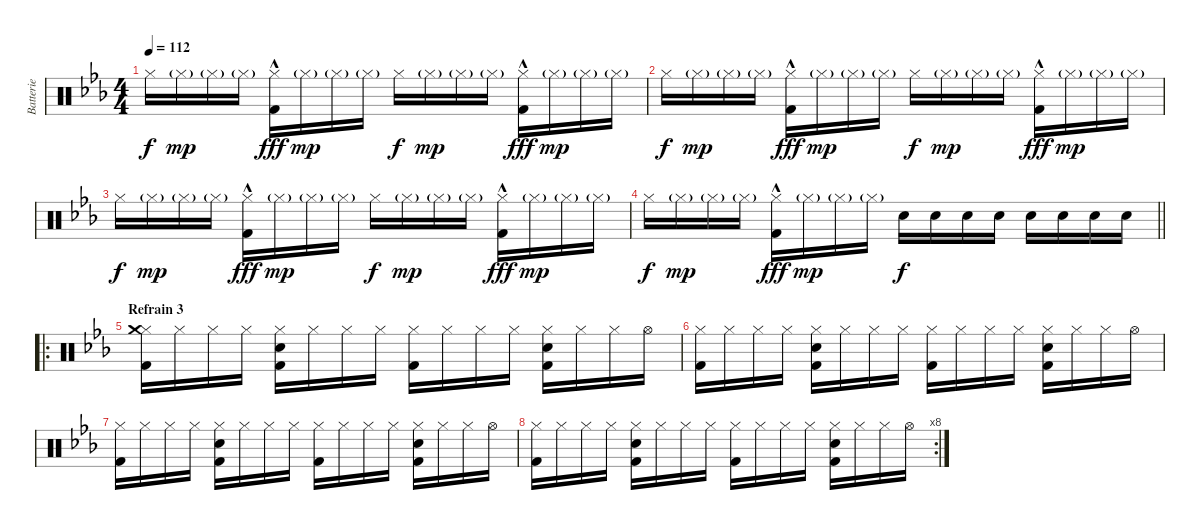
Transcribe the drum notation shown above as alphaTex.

\track ("Batterie" "Batterie") {instrument percussion}
\staff {score}
\articulation defaults
\ts (4 4)
\tempo 112
\clef neutral
\ks cminor "Hi-Hat (closed)".16{dy f} "Hi-Hat (closed)"{g}.16{dy mp} "Hi-Hat (closed)"{g}.16 "Hi-Hat (closed)"{g}.16
("Hi-Hat (closed)" "Kick (hit) 2"{hac}).16{dy fff} "Hi-Hat (closed)"{g}.16{dy mp} "Hi-Hat (closed)"{g}.16 "Hi-Hat (closed)"{g}.16 "Hi-Hat (closed)".16{dy f} "Hi-Hat (closed)"{g}.16{dy mp} "Hi-Hat (closed)"{g}.16 "Hi-Hat (closed)"{g}.16 ("Hi-Hat (closed)" "Kick (hit) 2"{hac}).16{dy fff} "Hi-Hat (closed)"{g}.16{dy mp} "Hi-Hat (closed)"{g}.16 "Hi-Hat (closed)"{g}.16 |
"Hi-Hat (closed)".16{dy f} "Hi-Hat (closed)"{g}.16{dy mp} "Hi-Hat (closed)"{g}.16 "Hi-Hat (closed)"{g}.16 ("Hi-Hat (closed)" "Kick (hit) 2"{hac}).16{dy fff} "Hi-Hat (closed)"{g}.16{dy mp} "Hi-Hat (closed)"{g}.16 "Hi-Hat (closed)"{g}.16 "Hi-Hat (closed)".16{dy f} "Hi-Hat (closed)"{g}.16{dy mp} "Hi-Hat (closed)"{g}.16 "Hi-Hat (closed)"{g}.16 ("Hi-Hat (closed)" "Kick (hit) 2"{hac}).16{dy fff} "Hi-Hat (closed)"{g}.16{dy mp} "Hi-Hat (closed)"{g}.16 "Hi-Hat (closed)"{g}.16 |
"Hi-Hat (closed)".16{dy f} "Hi-Hat (closed)"{g}.16{dy mp} "Hi-Hat (closed)"{g}.16 "Hi-Hat (closed)"{g}.16 ("Hi-Hat (closed)" "Kick (hit) 2"{hac}).16{dy fff} "Hi-Hat (closed)"{g}.16{dy mp} "Hi-Hat (closed)"{g}.16 "Hi-Hat (closed)"{g}.16 "Hi-Hat (closed)".16{dy f} "Hi-Hat (closed)"{g}.16{dy mp} "Hi-Hat (closed)"{g}.16 "Hi-Hat (closed)"{g}.16 ("Hi-Hat (closed)" "Kick (hit) 2"{hac}).16{dy fff} "Hi-Hat (closed)"{g}.16{dy mp} "Hi-Hat (closed)"{g}.16 "Hi-Hat (closed)"{g}.16 |
\barLineRight lightlight "Hi-Hat (closed)".16{dy f} "Hi-Hat (closed)"{g}.16{dy mp} "Hi-Hat (closed)"{g}.16 "Hi-Hat (closed)"{g}.16
("Hi-Hat (closed)" "Kick (hit) 2"{hac}).16{dy fff} "Hi-Hat (closed)"{g}.16{dy mp} "Hi-Hat (closed)"{g}.16 "Hi-Hat (closed)"{g}.16 "Electric Snare (hit)".16{dy f} "Electric Snare (hit)".16 "Electric Snare (hit)".16 "Electric Snare (hit)".16 "Electric Snare (hit)".16 "Electric Snare (hit)".16 "Electric Snare (hit)".16 "Electric Snare (hit)".16 |
\ro
\section ("" "Refrain 3")
("Hi-Hat (closed)" "Crash medium (hit)" "Kick (hit) 2").16 "Hi-Hat (closed)".16 "Hi-Hat (closed)".16 "Hi-Hat (closed)".16 ("Hi-Hat (closed)" "Electric Snare (hit)" "Kick (hit) 2").16 "Hi-Hat (closed)".16 "Hi-Hat (closed)".16 "Hi-Hat (closed)".16 ("Hi-Hat (closed)" "Kick (hit) 2").16 "Hi-Hat (closed)".16 "Hi-Hat (closed)".16 "Hi-Hat (closed)".16 ("Hi-Hat (closed)" "Electric Snare (hit)" "Kick (hit) 2").16 "Hi-Hat (closed)".16 "Hi-Hat (closed)".16 "Hi-Hat (open)".16 |
("Hi-Hat (closed)" "Kick (hit) 2").16 "Hi-Hat (closed)".16 "Hi-Hat (closed)".16 "Hi-Hat (closed)".16 ("Hi-Hat (closed)" "Electric Snare (hit)" "Kick (hit) 2").16 "Hi-Hat (closed)".16 "Hi-Hat (closed)".16 "Hi-Hat (closed)".16 ("Hi-Hat (closed)" "Kick (hit) 2").16 "Hi-Hat (closed)".16 "Hi-Hat (closed)".16 "Hi-Hat (closed)".16 ("Hi-Hat (closed)" "Electric Snare (hit)" "Kick (hit) 2").16 "Hi-Hat (closed)".16 "Hi-Hat (closed)".16 "Hi-Hat (open)".16 |
("Hi-Hat (closed)" "Kick (hit) 2").16 "Hi-Hat (closed)".16 "Hi-Hat (closed)".16 "Hi-Hat (closed)".16 ("Hi-Hat (closed)" "Electric Snare (hit)" "Kick (hit) 2").16 "Hi-Hat (closed)".16 "Hi-Hat (closed)".16 "Hi-Hat (closed)".16 ("Hi-Hat (closed)" "Kick (hit) 2").16 "Hi-Hat (closed)".16 "Hi-Hat (closed)".16 "Hi-Hat (closed)".16 ("Hi-Hat (closed)" "Electric Snare (hit)" "Kick (hit) 2").16 "Hi-Hat (closed)".16 "Hi-Hat (closed)".16 "Hi-Hat (open)".16 |
\rc 8
("Hi-Hat (closed)" "Kick (hit) 2").16 "Hi-Hat (closed)".16 "Hi-Hat (closed)".16 "Hi-Hat (closed)".16 ("Hi-Hat (closed)" "Electric Snare (hit)" "Kick (hit) 2").16 "Hi-Hat (closed)".16 "Hi-Hat (closed)".16 "Hi-Hat (closed)".16 ("Hi-Hat (closed)" "Kick (hit) 2").16 "Hi-Hat (closed)".16 "Hi-Hat (closed)".16 "Hi-Hat (closed)".16 ("Hi-Hat (closed)" "Electric Snare (hit)" "Kick (hit) 2").16 "Hi-Hat (closed)".16 "Hi-Hat (closed)".16 "Hi-Hat (open)".16
